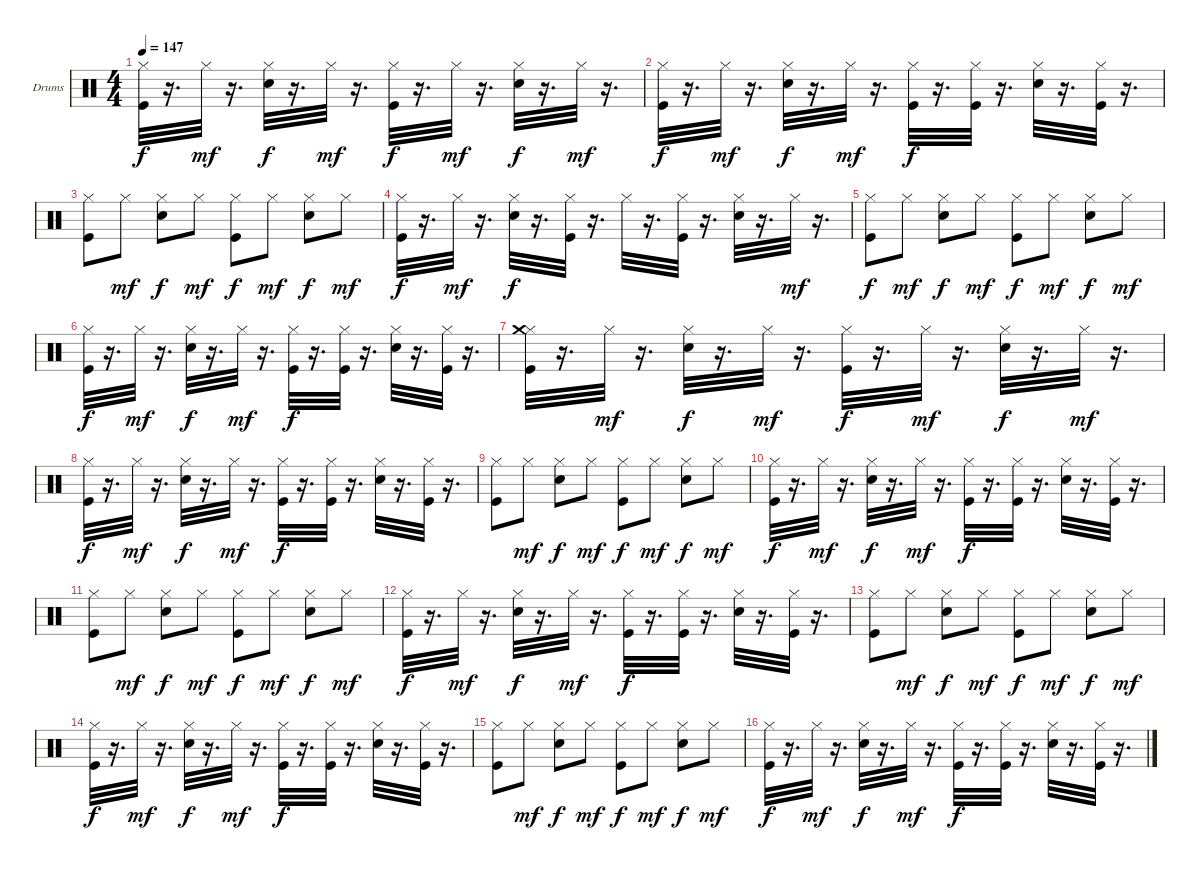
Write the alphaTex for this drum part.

\bracketExtendMode groupsimilarinstruments
\firstSystemTrackNameOrientation horizontal
\otherSystemsTrackNameOrientation horizontal
\track ("Drumkit" "Drums") {instrument percussion}
\staff {score}
\articulation defaults
\ts (4 4)
\tempo 147
\clef neutral
\ks c
("Kick (hit)" "Hi-Hat (closed)").32{dy f} r.16{d} "Hi-Hat (closed)".32{dy mf} r.16{d} ("Snare (hit) 2" "Hi-Hat (closed)").32{dy f} r.16{d} "Hi-Hat (closed)".32{dy mf} r.16{d} ("Kick (hit)" "Hi-Hat (closed)").32{dy f} r.16{d} "Hi-Hat (closed)".32{dy mf} r.16{d} ("Snare (hit) 2" "Hi-Hat (closed)").32{dy f} r.16{d} "Hi-Hat (closed)".32{dy mf} r.16{d} |
("Kick (hit)" "Hi-Hat (closed)").32{dy f} r.16{d} "Hi-Hat (closed)".32{dy mf} r.16{d} ("Snare (hit) 2" "Hi-Hat (closed)").32{dy f} r.16{d} "Hi-Hat (closed)".32{dy mf} r.16{d} ("Kick (hit)" "Hi-Hat (closed)").32{dy f} r.16{d} ("Kick (hit)" "Hi-Hat (closed)").32 r.16{d} ("Snare (hit) 2" "Hi-Hat (closed)").32 r.16{d} ("Kick (hit)" "Hi-Hat (closed)").32 r.16{d} |
("Hi-Hat (closed)" "Kick (hit)").8 "Hi-Hat (closed)".8{dy mf} ("Hi-Hat (closed)" "Snare (hit) 2").8{dy f} "Hi-Hat (closed)".8{dy mf} ("Hi-Hat (closed)" "Kick (hit)").8{dy f} "Hi-Hat (closed)".8{dy mf} ("Hi-Hat (closed)" "Snare (hit) 2").8{dy f} "Hi-Hat (closed)".8{dy mf} |
("Kick (hit)" "Hi-Hat (closed)").32{dy f} r.16{d} "Hi-Hat (closed)".32{dy mf} r.16{d} ("Snare (hit) 2" "Hi-Hat (closed)").32{dy f} r.16{d} ("Kick (hit)" "Hi-Hat (closed)").32 r.16{d} "Hi-Hat (closed)".32 r.16{d} ("Kick (hit)" "Hi-Hat (closed)").32 r.16{d} ("Snare (hit) 2" "Hi-Hat (closed)").32 r.16{d} "Hi-Hat (closed)".32{dy mf} r.16{d} |
("Hi-Hat (closed)" "Kick (hit)").8{dy f} "Hi-Hat (closed)".8{dy mf} ("Hi-Hat (closed)" "Snare (hit) 2").8{dy f} "Hi-Hat (closed)".8{dy mf} ("Hi-Hat (closed)" "Kick (hit)").8{dy f} "Hi-Hat (closed)".8{dy mf} ("Hi-Hat (closed)" "Snare (hit) 2").8{dy f} "Hi-Hat (closed)".8{dy mf} |
("Kick (hit)" "Hi-Hat (closed)").32{dy f} r.16{d} "Hi-Hat (closed)".32{dy mf} r.16{d} ("Snare (hit) 2" "Hi-Hat (closed)").32{dy f} r.16{d} "Hi-Hat (closed)".32{dy mf} r.16{d} ("Kick (hit)" "Hi-Hat (closed)").32{dy f} r.16{d} ("Kick (hit)" "Hi-Hat (closed)").32 r.16{d} ("Snare (hit) 2" "Hi-Hat (closed)").32 r.16{d} ("Kick (hit)" "Hi-Hat (closed)").32 r.16{d} |
("Kick (hit)" "Hi-Hat (closed)" "Crash medium (hit)").32 r.16{d} "Hi-Hat (closed)".32{dy mf} r.16{d} ("Snare (hit) 2" "Hi-Hat (closed)").32{dy f} r.16{d} "Hi-Hat (closed)".32{dy mf} r.16{d} ("Kick (hit)" "Hi-Hat (closed)").32{dy f} r.16{d} "Hi-Hat (closed)".32{dy mf} r.16{d} ("Snare (hit) 2" "Hi-Hat (closed)").32{dy f} r.16{d} "Hi-Hat (closed)".32{dy mf} r.16{d} |
("Kick (hit)" "Hi-Hat (closed)").32{dy f} r.16{d} "Hi-Hat (closed)".32{dy mf} r.16{d} ("Snare (hit) 2" "Hi-Hat (closed)").32{dy f} r.16{d} "Hi-Hat (closed)".32{dy mf} r.16{d} ("Kick (hit)" "Hi-Hat (closed)").32{dy f} r.16{d} ("Kick (hit)" "Hi-Hat (closed)").32 r.16{d} ("Snare (hit) 2" "Hi-Hat (closed)").32 r.16{d} ("Kick (hit)" "Hi-Hat (closed)").32 r.16{d} |
("Hi-Hat (closed)" "Kick (hit)").8 "Hi-Hat (closed)".8{dy mf} ("Hi-Hat (closed)" "Snare (hit) 2").8{dy f} "Hi-Hat (closed)".8{dy mf} ("Hi-Hat (closed)" "Kick (hit)").8{dy f} "Hi-Hat (closed)".8{dy mf} ("Hi-Hat (closed)" "Snare (hit) 2").8{dy f} "Hi-Hat (closed)".8{dy mf} |
("Kick (hit)" "Hi-Hat (closed)").32{dy f} r.16{d} "Hi-Hat (closed)".32{dy mf} r.16{d} ("Snare (hit) 2" "Hi-Hat (closed)").32{dy f} r.16{d} "Hi-Hat (closed)".32{dy mf} r.16{d} ("Kick (hit)" "Hi-Hat (closed)").32{dy f} r.16{d} ("Kick (hit)" "Hi-Hat (closed)").32 r.16{d} ("Snare (hit) 2" "Hi-Hat (closed)").32 r.16{d} ("Kick (hit)" "Hi-Hat (closed)").32 r.16{d} |
("Hi-Hat (closed)" "Kick (hit)").8 "Hi-Hat (closed)".8{dy mf} ("Hi-Hat (closed)" "Snare (hit) 2").8{dy f} "Hi-Hat (closed)".8{dy mf} ("Hi-Hat (closed)" "Kick (hit)").8{dy f} "Hi-Hat (closed)".8{dy mf} ("Hi-Hat (closed)" "Snare (hit) 2").8{dy f} "Hi-Hat (closed)".8{dy mf} |
("Kick (hit)" "Hi-Hat (closed)").32{dy f} r.16{d} "Hi-Hat (closed)".32{dy mf} r.16{d} ("Snare (hit) 2" "Hi-Hat (closed)").32{dy f} r.16{d} "Hi-Hat (closed)".32{dy mf} r.16{d} ("Kick (hit)" "Hi-Hat (closed)").32{dy f} r.16{d} ("Kick (hit)" "Hi-Hat (closed)").32 r.16{d} ("Snare (hit) 2" "Hi-Hat (closed)").32 r.16{d} ("Kick (hit)" "Hi-Hat (closed)").32 r.16{d} |
("Hi-Hat (closed)" "Kick (hit)").8 "Hi-Hat (closed)".8{dy mf} ("Hi-Hat (closed)" "Snare (hit) 2").8{dy f} "Hi-Hat (closed)".8{dy mf} ("Hi-Hat (closed)" "Kick (hit)").8{dy f} "Hi-Hat (closed)".8{dy mf} ("Hi-Hat (closed)" "Snare (hit) 2").8{dy f} "Hi-Hat (closed)".8{dy mf} |
("Kick (hit)" "Hi-Hat (closed)").32{dy f} r.16{d} "Hi-Hat (closed)".32{dy mf} r.16{d} ("Snare (hit) 2" "Hi-Hat (closed)").32{dy f} r.16{d} "Hi-Hat (closed)".32{dy mf} r.16{d} ("Kick (hit)" "Hi-Hat (closed)").32{dy f} r.16{d} ("Kick (hit)" "Hi-Hat (closed)").32 r.16{d} ("Snare (hit) 2" "Hi-Hat (closed)").32 r.16{d} ("Kick (hit)" "Hi-Hat (closed)").32 r.16{d} |
("Hi-Hat (closed)" "Kick (hit)").8 "Hi-Hat (closed)".8{dy mf} ("Hi-Hat (closed)" "Snare (hit) 2").8{dy f} "Hi-Hat (closed)".8{dy mf} ("Hi-Hat (closed)" "Kick (hit)").8{dy f} "Hi-Hat (closed)".8{dy mf} ("Hi-Hat (closed)" "Snare (hit) 2").8{dy f} "Hi-Hat (closed)".8{dy mf} |
("Kick (hit)" "Hi-Hat (closed)").32{dy f} r.16{d} "Hi-Hat (closed)".32{dy mf} r.16{d} ("Snare (hit) 2" "Hi-Hat (closed)").32{dy f} r.16{d} "Hi-Hat (closed)".32{dy mf} r.16{d} ("Kick (hit)" "Hi-Hat (closed)").32{dy f} r.16{d} ("Kick (hit)" "Hi-Hat (closed)").32 r.16{d} ("Snare (hit) 2" "Hi-Hat (closed)").32 r.16{d} ("Kick (hit)" "Hi-Hat (closed)").32 r.16{d}
